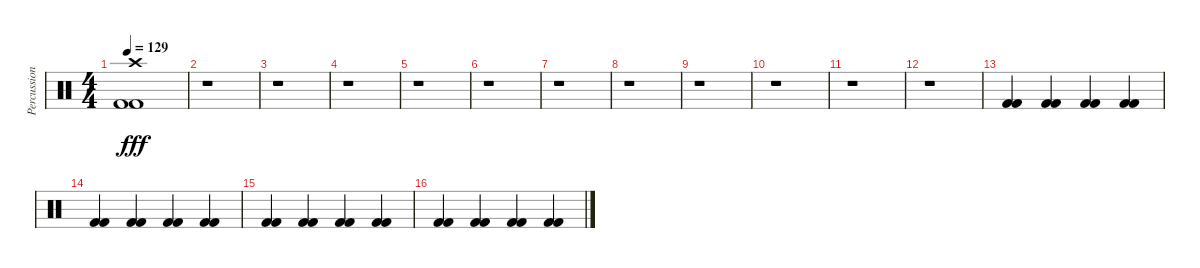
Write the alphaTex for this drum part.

\track ("Percussioni" "Percussion") {instrument percussion}
\staff {score}
\articulation defaults
\ts (4 4)
\tempo 129
\clef neutral
\ks c
("Crash high (hit)" "Kick (hit) 2" "Kick (hit) 2").1{dy fff} |
r.1 |
r.1 |
r.1 |
r.1 |
r.1 |
r.1 |
r.1 |
r.1 |
r.1 |
r.1 |
r.1 |
("Kick (hit) 2" "Kick (hit) 2").4 ("Kick (hit) 2" "Kick (hit) 2").4 ("Kick (hit) 2" "Kick (hit) 2").4 ("Kick (hit) 2" "Kick (hit) 2").4 |
("Kick (hit) 2" "Kick (hit) 2").4 ("Kick (hit) 2" "Kick (hit) 2").4 ("Kick (hit) 2" "Kick (hit) 2").4 ("Kick (hit) 2" "Kick (hit) 2").4 |
("Kick (hit) 2" "Kick (hit) 2").4 ("Kick (hit) 2" "Kick (hit) 2").4 ("Kick (hit) 2" "Kick (hit) 2").4 ("Kick (hit) 2" "Kick (hit) 2").4 |
("Kick (hit) 2" "Kick (hit) 2").4 ("Kick (hit) 2" "Kick (hit) 2").4 ("Kick (hit) 2" "Kick (hit) 2").4 ("Kick (hit) 2" "Kick (hit) 2").4
